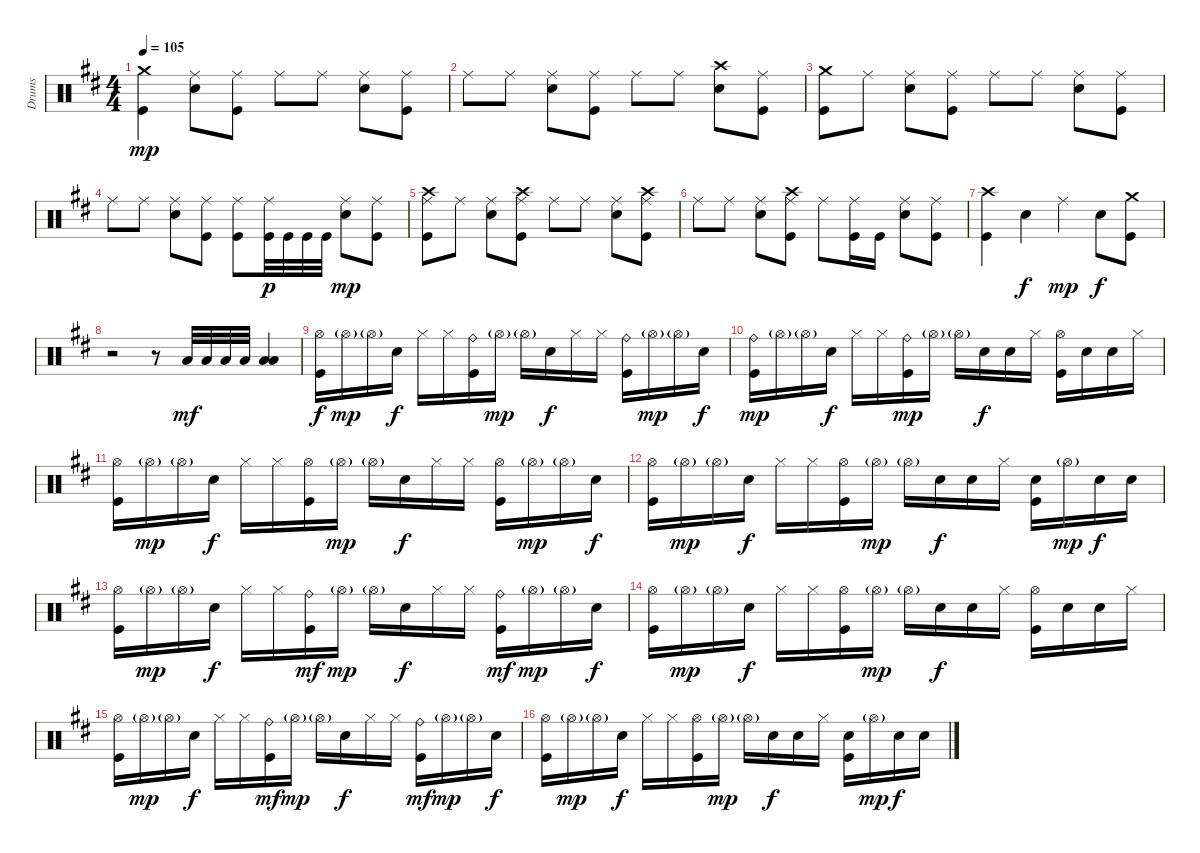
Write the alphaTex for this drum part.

\track ("Drums" "Drums") {instrument percussion}
\staff {score}
\articulation defaults
\ts (4 4)
\tempo 105
\clef neutral
\ks d
("Crash medium (hit)" "Kick (hit)").4{dy mp} ("Ride (middle)" "Electric Snare (hit)").8 ("Ride (middle)" "Kick (hit)").8 "Ride (middle)".8 "Ride (middle)".8 ("Ride (middle)" "Electric Snare (hit)").8 ("Ride (middle)" "Kick (hit)").8 |
"Ride (middle)".8 "Ride (middle)".8 ("Ride (middle)" "Electric Snare (hit)").8 ("Ride (middle)" "Kick (hit)").8 "Ride (middle)".8 "Ride (middle)".8 ("Crash high (hit)" "Electric Snare (hit)").8 ("Ride (middle)" "Kick (hit)").8 |
("Crash medium (hit)" "Kick (hit)").8 "Ride (middle)".8 ("Ride (middle)" "Electric Snare (hit)").8 ("Ride (middle)" "Kick (hit)").8 "Ride (middle)".8 "Ride (middle)".8 ("Ride (middle)" "Electric Snare (hit)").8 ("Ride (middle)" "Kick (hit)").8 |
"Ride (middle)".8 "Ride (middle)".8 ("Ride (middle)" "Electric Snare (hit)").8 ("Ride (middle)" "Kick (hit)").8 ("Ride (middle)" "Kick (hit)").8 ("Ride (middle)" "Kick (hit)").32{dy p} "Kick (hit)".32 "Kick (hit)".32 "Kick (hit)".32 ("Ride (middle)" "Electric Snare (hit)").8{dy mp} ("Ride (middle)" "Kick (hit)").8 |
("Ride (middle)" "Crash high (hit)" "Kick (hit)").8 "Ride (middle)".8 ("Ride (middle)" "Electric Snare (hit)").8 ("Ride (middle)" "Crash high (hit)" "Kick (hit)").8 "Ride (middle)".8 "Ride (middle)".8 ("Ride (middle)" "Electric Snare (hit)").8 ("Ride (middle)" "Crash high (hit)" "Kick (hit)").8 |
"Ride (middle)".8 "Ride (middle)".8 ("Ride (middle)" "Electric Snare (hit)").8 ("Ride (middle)" "Crash high (hit)" "Kick (hit)").8 "Ride (middle)".8 ("Ride (middle)" "Kick (hit)").16 "Kick (hit)".16 ("Ride (middle)" "Electric Snare (hit)").8 ("Ride (middle)" "Kick (hit)").8 |
("Crash high (hit)" "Kick (hit)").4 "Electric Snare (hit)".4{dy f} "Ride (middle)".4{dy mp} "Electric Snare (hit)".8{dy f} ("Crash medium (hit)" "Kick (hit)").8 |
r.2 r.8 "Low Floor Tom (hit)".32{dy mf} "Low Floor Tom (hit)".32 "Low Floor Tom (hit)".32 "Low Floor Tom (hit)".32 ("Low Floor Tom (hit)" "Low Floor Tom (hit)").4 |
("Hi-Hat (open)" "Kick (hit)").16{dy f} "Hi-Hat (open)"{g}.16{dy mp} "Hi-Hat (open)"{g}.16 "Electric Snare (hit)".16{dy f} "Hi-Hat (closed)".16 "Hi-Hat (closed)".16 ("Ride (bell)" "Kick (hit)").16 "Hi-Hat (open)"{g}.16{dy mp} "Hi-Hat (open)"{g}.16 "Electric Snare (hit)".16{dy f} "Hi-Hat (closed)".16 "Hi-Hat (closed)".16 ("Ride (bell)" "Kick (hit)").16 "Hi-Hat (open)"{g}.16{dy mp} "Hi-Hat (open)"{g}.16 "Electric Snare (hit)".16{dy f} |
("Ride (bell)" "Kick (hit)").16{dy mp} "Hi-Hat (open)"{g}.16 "Hi-Hat (open)"{g}.16 "Electric Snare (hit)".16{dy f} "Hi-Hat (closed)".16 "Hi-Hat (closed)".16 ("Ride (bell)" "Kick (hit)").16{dy mp} "Hi-Hat (open)"{g}.16 "Hi-Hat (open)"{g}.16 "Electric Snare (hit)".16{dy f} "Electric Snare (hit)".16 "Hi-Hat (closed)".16 ("Hi-Hat (open)" "Kick (hit)").16 "Electric Snare (hit)".16 "Electric Snare (hit)".16 "Hi-Hat (closed)".16 |
("Hi-Hat (open)" "Kick (hit)").16 "Hi-Hat (open)"{g}.16{dy mp} "Hi-Hat (open)"{g}.16 "Electric Snare (hit)".16{dy f} "Hi-Hat (closed)".16 "Hi-Hat (closed)".16 ("Hi-Hat (open)" "Kick (hit)").16 "Hi-Hat (open)"{g}.16{dy mp} "Hi-Hat (open)"{g}.16 "Electric Snare (hit)".16{dy f} "Hi-Hat (closed)".16 "Hi-Hat (closed)".16 ("Hi-Hat (open)" "Kick (hit)").16 "Hi-Hat (open)"{g}.16{dy mp} "Hi-Hat (open)"{g}.16 "Electric Snare (hit)".16{dy f} |
("Hi-Hat (open)" "Kick (hit)").16 "Hi-Hat (open)"{g}.16{dy mp} "Hi-Hat (open)"{g}.16 "Electric Snare (hit)".16{dy f} "Hi-Hat (closed)".16 "Hi-Hat (closed)".16 ("Hi-Hat (open)" "Kick (hit)").16 "Hi-Hat (open)"{g}.16{dy mp} "Hi-Hat (open)"{g}.16 "Electric Snare (hit)".16{dy f} "Electric Snare (hit)".16 "Hi-Hat (closed)".16 ("Electric Snare (hit)" "Kick (hit)").16 "Hi-Hat (open)"{g}.16{dy mp} "Electric Snare (hit)".16{dy f} "Electric Snare (hit)".16 |
("Hi-Hat (open)" "Kick (hit)").16 "Hi-Hat (open)"{g}.16{dy mp} "Hi-Hat (open)"{g}.16 "Electric Snare (hit)".16{dy f} "Hi-Hat (closed)".16 "Hi-Hat (closed)".16 ("Ride (bell)" "Kick (hit)").16{dy mf} "Hi-Hat (open)"{g}.16{dy mp} "Hi-Hat (open)"{g}.16 "Electric Snare (hit)".16{dy f} "Hi-Hat (closed)".16 "Hi-Hat (closed)".16 ("Ride (bell)" "Kick (hit)").16{dy mf} "Hi-Hat (open)"{g}.16{dy mp} "Hi-Hat (open)"{g}.16 "Electric Snare (hit)".16{dy f} |
("Hi-Hat (open)" "Kick (hit)").16 "Hi-Hat (open)"{g}.16{dy mp} "Hi-Hat (open)"{g}.16 "Electric Snare (hit)".16{dy f} "Hi-Hat (closed)".16 "Hi-Hat (closed)".16 ("Hi-Hat (open)" "Kick (hit)").16 "Hi-Hat (open)"{g}.16{dy mp} "Hi-Hat (open)"{g}.16 "Electric Snare (hit)".16{dy f} "Electric Snare (hit)".16 "Hi-Hat (closed)".16 ("Hi-Hat (open)" "Kick (hit)").16 "Electric Snare (hit)".16 "Electric Snare (hit)".16 "Hi-Hat (closed)".16 |
("Hi-Hat (open)" "Kick (hit)").16 "Hi-Hat (open)"{g}.16{dy mp} "Hi-Hat (open)"{g}.16 "Electric Snare (hit)".16{dy f} "Hi-Hat (closed)".16 "Hi-Hat (closed)".16 ("Ride (bell)" "Kick (hit)").16{dy mf} "Hi-Hat (open)"{g}.16{dy mp} "Hi-Hat (open)"{g}.16 "Electric Snare (hit)".16{dy f} "Hi-Hat (closed)".16 "Hi-Hat (closed)".16 ("Ride (bell)" "Kick (hit)").16{dy mf} "Hi-Hat (open)"{g}.16{dy mp} "Hi-Hat (open)"{g}.16 "Electric Snare (hit)".16{dy f} |
("Hi-Hat (open)" "Kick (hit)").16 "Hi-Hat (open)"{g}.16{dy mp} "Hi-Hat (open)"{g}.16 "Electric Snare (hit)".16{dy f} "Hi-Hat (closed)".16 "Hi-Hat (closed)".16 ("Hi-Hat (open)" "Kick (hit)").16 "Hi-Hat (open)"{g}.16{dy mp} "Hi-Hat (open)"{g}.16 "Electric Snare (hit)".16{dy f} "Electric Snare (hit)".16 "Hi-Hat (closed)".16 ("Electric Snare (hit)" "Kick (hit)").16 "Hi-Hat (open)"{g}.16{dy mp} "Electric Snare (hit)".16{dy f} "Electric Snare (hit)".16
